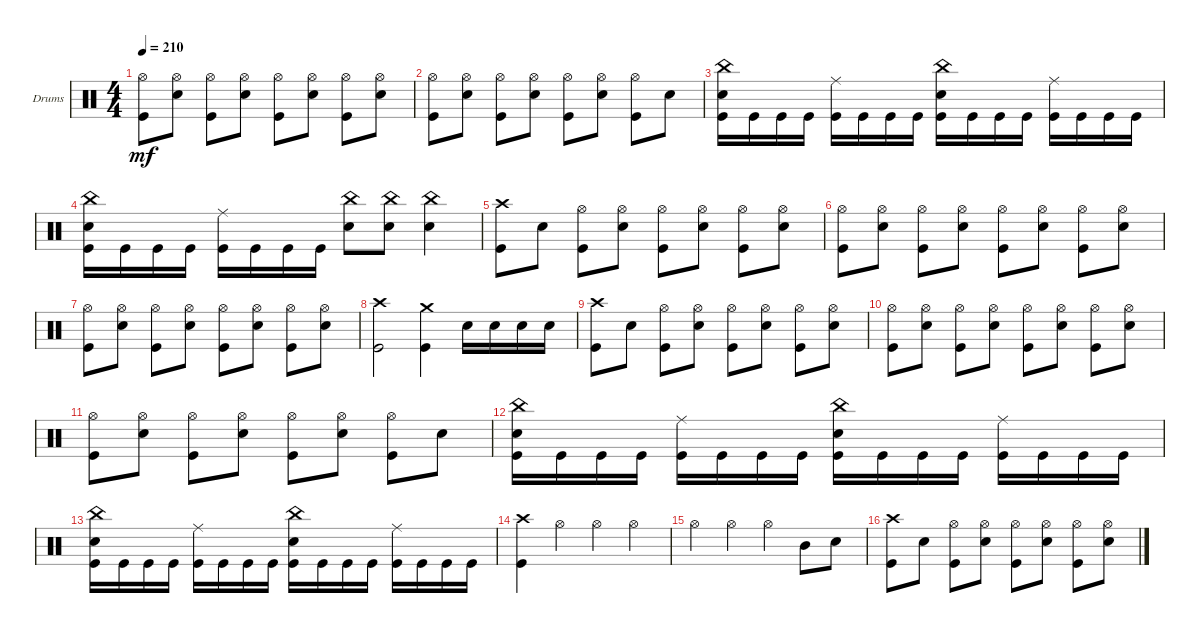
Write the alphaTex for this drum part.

\bracketExtendMode groupsimilarinstruments
\firstSystemTrackNameOrientation horizontal
\otherSystemsTrackNameOrientation horizontal
\track ("Drumkit" "Drums") {instrument percussion}
\staff {score}
\articulation defaults
\ts (4 4)
\tempo 210
\clef neutral
\ks c
("Hi-Hat (open)" "Kick (hit)").8{dy mf} ("Hi-Hat (open)" "Snare (hit) 2").8 ("Hi-Hat (open)" "Kick (hit)").8 ("Hi-Hat (open)" "Snare (hit) 2").8 ("Hi-Hat (open)" "Kick (hit)").8 ("Hi-Hat (open)" "Snare (hit) 2").8 ("Hi-Hat (open)" "Kick (hit)").8 ("Hi-Hat (open)" "Snare (hit) 2").8 |
("Hi-Hat (open)" "Kick (hit)").8 ("Hi-Hat (open)" "Snare (hit) 2").8 ("Hi-Hat (open)" "Kick (hit)").8 ("Hi-Hat (open)" "Snare (hit) 2").8 ("Hi-Hat (open)" "Kick (hit)").8 ("Hi-Hat (open)" "Snare (hit) 2").8 ("Hi-Hat (open)" "Kick (hit)").8 "Snare (hit) 2".8 |
("Snare (hit) 2" "Kick (hit)" "China (hit)").16 "Kick (hit)".16 "Kick (hit)".16 "Kick (hit)".16 ("Kick (hit)" "Ride (middle)").16 "Kick (hit)".16 "Kick (hit)".16 "Kick (hit)".16 ("Kick (hit)" "Snare (hit) 2" "China (hit)").16 "Kick (hit)".16 "Kick (hit)".16 "Kick (hit)".16 ("Kick (hit)" "Ride (middle)").16 "Kick (hit)".16 "Kick (hit)".16 "Kick (hit)".16 |
("Snare (hit) 2" "Kick (hit)" "China (hit)").16 "Kick (hit)".16 "Kick (hit)".16 "Kick (hit)".16 ("Kick (hit)" "Ride (middle)").16 "Kick (hit)".16 "Kick (hit)".16 "Kick (hit)".16 ("Snare (hit) 2" "China (hit)").8 ("Snare (hit) 2" "China (hit)").8 ("Snare (hit) 2" "China (hit)").4 |
("Kick (hit)" "Crash high (hit)").8 "Snare (hit) 2".8 ("Hi-Hat (open)" "Kick (hit)").8 ("Hi-Hat (open)" "Snare (hit) 2").8 ("Hi-Hat (open)" "Kick (hit)").8 ("Hi-Hat (open)" "Snare (hit) 2").8 ("Hi-Hat (open)" "Kick (hit)").8 ("Hi-Hat (open)" "Snare (hit) 2").8 |
("Hi-Hat (open)" "Kick (hit)").8 ("Hi-Hat (open)" "Snare (hit) 2").8 ("Hi-Hat (open)" "Kick (hit)").8 ("Hi-Hat (open)" "Snare (hit) 2").8 ("Hi-Hat (open)" "Kick (hit)").8 ("Hi-Hat (open)" "Snare (hit) 2").8 ("Hi-Hat (open)" "Kick (hit)").8 ("Hi-Hat (open)" "Snare (hit) 2").8 |
("Hi-Hat (open)" "Kick (hit)").8 ("Hi-Hat (open)" "Snare (hit) 2").8 ("Hi-Hat (open)" "Kick (hit)").8 ("Hi-Hat (open)" "Snare (hit) 2").8 ("Hi-Hat (open)" "Kick (hit)").8 ("Hi-Hat (open)" "Snare (hit) 2").8 ("Hi-Hat (open)" "Kick (hit)").8 ("Hi-Hat (open)" "Snare (hit) 2").8 |
("Kick (hit)" "Crash high (hit)").2 ("Kick (hit)" "Crash medium (hit)").4 "Snare (hit) 2".16 "Snare (hit) 2".16 "Snare (hit) 2".16 "Snare (hit) 2".16 |
("Kick (hit)" "Crash high (hit)").8 "Snare (hit) 2".8 ("Hi-Hat (open)" "Kick (hit)").8 ("Hi-Hat (open)" "Snare (hit) 2").8 ("Hi-Hat (open)" "Kick (hit)").8 ("Hi-Hat (open)" "Snare (hit) 2").8 ("Hi-Hat (open)" "Kick (hit)").8 ("Hi-Hat (open)" "Snare (hit) 2").8 |
("Hi-Hat (open)" "Kick (hit)").8 ("Hi-Hat (open)" "Snare (hit) 2").8 ("Hi-Hat (open)" "Kick (hit)").8 ("Hi-Hat (open)" "Snare (hit) 2").8 ("Hi-Hat (open)" "Kick (hit)").8 ("Hi-Hat (open)" "Snare (hit) 2").8 ("Hi-Hat (open)" "Kick (hit)").8 ("Hi-Hat (open)" "Snare (hit) 2").8 |
("Hi-Hat (open)" "Kick (hit)").8 ("Hi-Hat (open)" "Snare (hit) 2").8 ("Hi-Hat (open)" "Kick (hit)").8 ("Hi-Hat (open)" "Snare (hit) 2").8 ("Hi-Hat (open)" "Kick (hit)").8 ("Hi-Hat (open)" "Snare (hit) 2").8 ("Hi-Hat (open)" "Kick (hit)").8 "Snare (hit) 2".8 |
("Snare (hit) 2" "Kick (hit)" "China (hit)").16 "Kick (hit)".16 "Kick (hit)".16 "Kick (hit)".16 ("Kick (hit)" "Ride (middle)").16 "Kick (hit)".16 "Kick (hit)".16 "Kick (hit)".16 ("Kick (hit)" "Snare (hit) 2" "China (hit)").16 "Kick (hit)".16 "Kick (hit)".16 "Kick (hit)".16 ("Kick (hit)" "Ride (middle)").16 "Kick (hit)".16 "Kick (hit)".16 "Kick (hit)".16 |
("Snare (hit) 2" "Kick (hit)" "China (hit)").16 "Kick (hit)".16 "Kick (hit)".16 "Kick (hit)".16 ("Kick (hit)" "Ride (middle)").16 "Kick (hit)".16 "Kick (hit)".16 "Kick (hit)".16 ("Kick (hit)" "Snare (hit) 2" "China (hit)").16 "Kick (hit)".16 "Kick (hit)".16 "Kick (hit)".16 ("Kick (hit)" "Ride (middle)").16 "Kick (hit)".16 "Kick (hit)".16 "Kick (hit)".16 |
("Kick (hit)" "Crash high (hit)").4 "Hi-Hat (open)".4 "Hi-Hat (open)".4 "Hi-Hat (open)".4 |
"Hi-Hat (open)".4 "Hi-Hat (open)".4 "Hi-Hat (open)".4 "Mid Tom (hit)".8 "Snare (hit) 2".8 |
("Kick (hit)" "Crash high (hit)").8 "Snare (hit) 2".8 ("Hi-Hat (open)" "Kick (hit)").8 ("Hi-Hat (open)" "Snare (hit) 2").8 ("Hi-Hat (open)" "Kick (hit)").8 ("Hi-Hat (open)" "Snare (hit) 2").8 ("Hi-Hat (open)" "Kick (hit)").8 ("Hi-Hat (open)" "Snare (hit) 2").8
